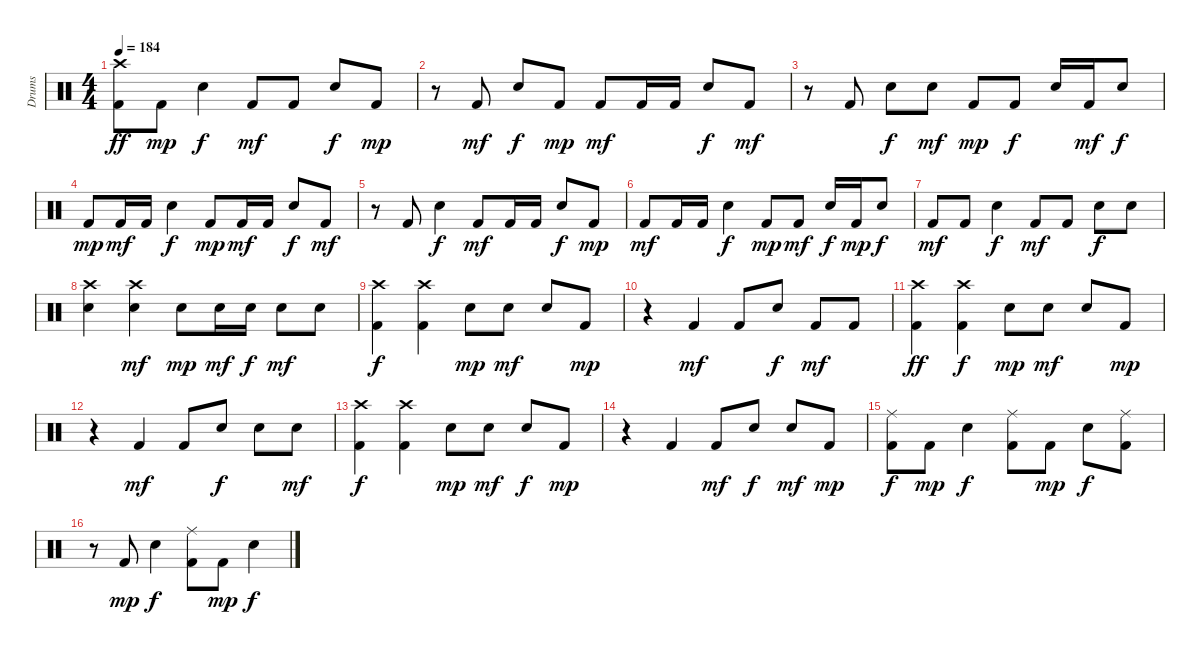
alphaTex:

\track ("Drums" "Drums") {instrument percussion}
\staff {score}
\articulation defaults
\ts (4 4)
\tempo 184
\clef neutral
\ks c
("Kick (hit) 2" "Crash high (hit)").8{dy ff} "Kick (hit) 2".8{dy mp} "Snare (hit) 2".4{dy f} "Kick (hit) 2".8{dy mf} "Kick (hit) 2".8 "Snare (hit) 2".8{dy f} "Kick (hit) 2".8{dy mp} |
r.8 "Kick (hit) 2".8{dy mf} "Snare (hit) 2".8{dy f} "Kick (hit) 2".8{dy mp} "Kick (hit) 2".8{dy mf} "Kick (hit) 2".16 "Kick (hit) 2".16 "Snare (hit) 2".8{dy f} "Kick (hit) 2".8{dy mf} |
r.8 "Kick (hit) 2".8 "Snare (hit) 2".8{dy f} "Snare (hit) 2".8{dy mf} "Kick (hit) 2".8{dy mp} "Kick (hit) 2".8{dy f} "Snare (hit) 2".16 "Kick (hit) 2".16{dy mf} "Snare (hit) 2".8{dy f} |
"Kick (hit) 2".8{dy mp} "Kick (hit) 2".16{dy mf} "Kick (hit) 2".16 "Snare (hit) 2".4{dy f} "Kick (hit) 2".8{dy mp} "Kick (hit) 2".16{dy mf} "Kick (hit) 2".16 "Snare (hit) 2".8{dy f} "Kick (hit) 2".8{dy mf} |
r.8 "Kick (hit) 2".8 "Snare (hit) 2".4{dy f} "Kick (hit) 2".8{dy mf} "Kick (hit) 2".16 "Kick (hit) 2".16 "Snare (hit) 2".8{dy f} "Kick (hit) 2".8{dy mp} |
"Kick (hit) 2".8{dy mf} "Kick (hit) 2".16 "Kick (hit) 2".16 "Snare (hit) 2".4{dy f} "Kick (hit) 2".8{dy mp} "Kick (hit) 2".8{dy mf} "Snare (hit) 2".16{dy f} "Kick (hit) 2".16{dy mp} "Snare (hit) 2".8{dy f} |
"Kick (hit) 2".8{dy mf} "Kick (hit) 2".8 "Snare (hit) 2".4{dy f} "Kick (hit) 2".8{dy mf} "Kick (hit) 2".8 "Snare (hit) 2".8{dy f} "Snare (hit) 2".8 |
("Snare (hit) 2" "Crash high (hit)").4 ("Snare (hit) 2" "Crash high (hit)").4{dy mf} "Snare (hit) 2".8{dy mp} "Snare (hit) 2".16{dy mf} "Snare (hit) 2".16{dy f} "Snare (hit) 2".8{dy mf} "Snare (hit) 2".8 |
("Kick (hit) 2" "Crash high (hit)").4{dy f} ("Kick (hit) 2" "Crash high (hit)").4 "Snare (hit) 2".8{dy mp} "Snare (hit) 2".8{dy mf} "Snare (hit) 2".8 "Kick (hit) 2".8{dy mp} |
r.4 "Kick (hit) 2".4{dy mf} "Kick (hit) 2".8 "Snare (hit) 2".8{dy f} "Kick (hit) 2".8{dy mf} "Kick (hit) 2".8 |
("Kick (hit) 2" "Crash high (hit)").4{dy ff} ("Kick (hit) 2" "Crash high (hit)").4{dy f} "Snare (hit) 2".8{dy mp} "Snare (hit) 2".8{dy mf} "Snare (hit) 2".8 "Kick (hit) 2".8{dy mp} |
r.4 "Kick (hit) 2".4{dy mf} "Kick (hit) 2".8 "Snare (hit) 2".8{dy f} "Snare (hit) 2".8 "Snare (hit) 2".8{dy mf} |
("Kick (hit) 2" "Crash high (hit)").4{dy f} ("Kick (hit) 2" "Crash high (hit)").4 "Snare (hit) 2".8{dy mp} "Snare (hit) 2".8{dy mf} "Snare (hit) 2".8{dy f} "Kick (hit) 2".8{dy mp} |
r.4 "Kick (hit) 2".4 "Kick (hit) 2".8{dy mf} "Snare (hit) 2".8{dy f} "Snare (hit) 2".8{dy mf} "Kick (hit) 2".8{dy mp} |
("Kick (hit) 2" "Ride (middle)").8{dy f} "Kick (hit) 2".8{dy mp} "Snare (hit) 2".4{dy f} ("Kick (hit) 2" "Ride (middle)").8 "Kick (hit) 2".8{dy mp} "Snare (hit) 2".8{dy f} ("Kick (hit) 2" "Ride (middle)").8 |
r.8 "Kick (hit) 2".8{dy mp} "Snare (hit) 2".4{dy f} ("Kick (hit) 2" "Ride (middle)").8 "Kick (hit) 2".8{dy mp} "Snare (hit) 2".4{dy f}
